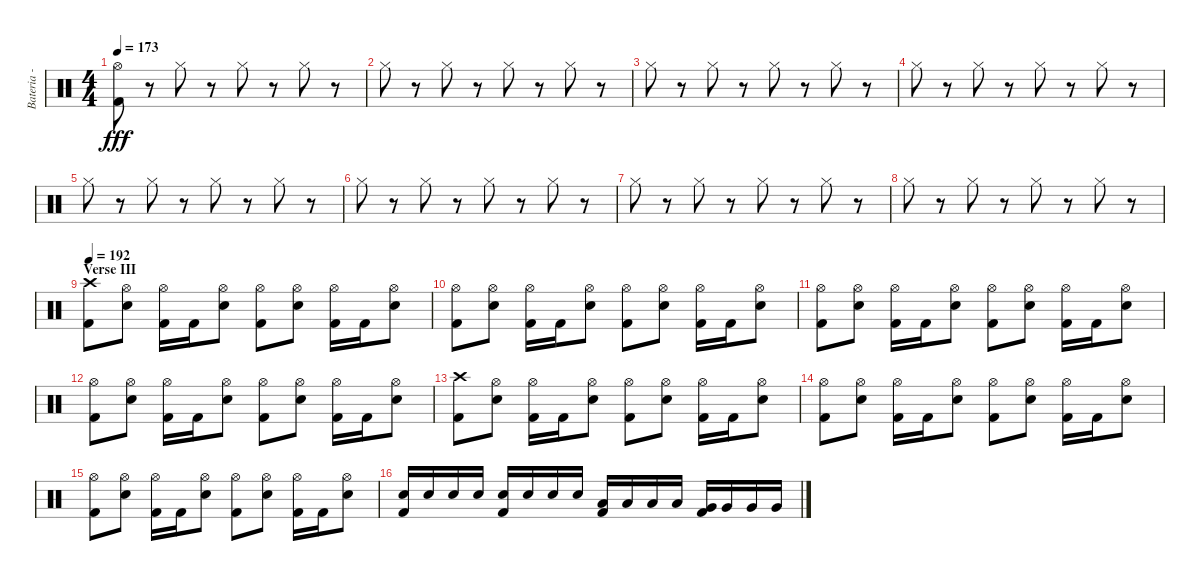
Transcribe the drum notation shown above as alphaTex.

\track ("Bateria - Larzon" "Bateria - ") {instrument percussion}
\staff {score}
\articulation defaults
\ts (4 4)
\tempo 173
\clef neutral
\ks c
("Kick (hit) 2" "Hi-Hat (open)").8{dy fff} r.8 "Hi-Hat (closed)".8 r.8 "Hi-Hat (closed)".8 r.8 "Hi-Hat (closed)".8 r.8 |
"Hi-Hat (closed)".8 r.8 "Hi-Hat (closed)".8 r.8 "Hi-Hat (closed)".8 r.8 "Hi-Hat (closed)".8 r.8 |
"Hi-Hat (closed)".8 r.8 "Hi-Hat (closed)".8 r.8 "Hi-Hat (closed)".8 r.8 "Hi-Hat (closed)".8 r.8 |
"Hi-Hat (closed)".8 r.8 "Hi-Hat (closed)".8 r.8 "Hi-Hat (closed)".8 r.8 "Hi-Hat (closed)".8 r.8 |
"Hi-Hat (closed)".8 r.8 "Hi-Hat (closed)".8 r.8 "Hi-Hat (closed)".8 r.8 "Hi-Hat (closed)".8 r.8 |
"Hi-Hat (closed)".8 r.8 "Hi-Hat (closed)".8 r.8 "Hi-Hat (closed)".8 r.8 "Hi-Hat (closed)".8 r.8 |
"Hi-Hat (closed)".8 r.8 "Hi-Hat (closed)".8 r.8 "Hi-Hat (closed)".8 r.8 "Hi-Hat (closed)".8 r.8 |
"Hi-Hat (closed)".8 r.8 "Hi-Hat (closed)".8 r.8 "Hi-Hat (closed)".8 r.8 "Hi-Hat (closed)".8 r.8 |
\section ("" "Verse III")
\tempo 192
("Kick (hit) 2" "Crash high (hit)").8 ("Electric Snare (hit)" "Hi-Hat (open)").8 ("Kick (hit) 2" "Hi-Hat (open)").16 "Kick (hit) 2".16 ("Electric Snare (hit)" "Hi-Hat (open)").8 ("Kick (hit) 2" "Hi-Hat (open)").8 ("Electric Snare (hit)" "Hi-Hat (open)").8 ("Kick (hit) 2" "Hi-Hat (open)").16 "Kick (hit) 2".16 ("Electric Snare (hit)" "Hi-Hat (open)").8 |
("Kick (hit) 2" "Hi-Hat (open)").8 ("Electric Snare (hit)" "Hi-Hat (open)").8 ("Kick (hit) 2" "Hi-Hat (open)").16 "Kick (hit) 2".16 ("Electric Snare (hit)" "Hi-Hat (open)").8 ("Kick (hit) 2" "Hi-Hat (open)").8 ("Electric Snare (hit)" "Hi-Hat (open)").8 ("Kick (hit) 2" "Hi-Hat (open)").16 "Kick (hit) 2".16 ("Electric Snare (hit)" "Hi-Hat (open)").8 |
("Kick (hit) 2" "Hi-Hat (open)").8 ("Electric Snare (hit)" "Hi-Hat (open)").8 ("Kick (hit) 2" "Hi-Hat (open)").16 "Kick (hit) 2".16 ("Electric Snare (hit)" "Hi-Hat (open)").8 ("Kick (hit) 2" "Hi-Hat (open)").8 ("Electric Snare (hit)" "Hi-Hat (open)").8 ("Kick (hit) 2" "Hi-Hat (open)").16 "Kick (hit) 2".16 ("Electric Snare (hit)" "Hi-Hat (open)").8 |
("Kick (hit) 2" "Hi-Hat (open)").8 ("Electric Snare (hit)" "Hi-Hat (open)").8 ("Kick (hit) 2" "Hi-Hat (open)").16 "Kick (hit) 2".16 ("Electric Snare (hit)" "Hi-Hat (open)").8 ("Kick (hit) 2" "Hi-Hat (open)").8 ("Electric Snare (hit)" "Hi-Hat (open)").8 ("Kick (hit) 2" "Hi-Hat (open)").16 "Kick (hit) 2".16 ("Electric Snare (hit)" "Hi-Hat (open)").8 |
("Kick (hit) 2" "Crash high (hit)").8 ("Electric Snare (hit)" "Hi-Hat (open)").8 ("Kick (hit) 2" "Hi-Hat (open)").16 "Kick (hit) 2".16 ("Electric Snare (hit)" "Hi-Hat (open)").8 ("Kick (hit) 2" "Hi-Hat (open)").8 ("Electric Snare (hit)" "Hi-Hat (open)").8 ("Kick (hit) 2" "Hi-Hat (open)").16 "Kick (hit) 2".16 ("Electric Snare (hit)" "Hi-Hat (open)").8 |
("Kick (hit) 2" "Hi-Hat (open)").8 ("Electric Snare (hit)" "Hi-Hat (open)").8 ("Kick (hit) 2" "Hi-Hat (open)").16 "Kick (hit) 2".16 ("Electric Snare (hit)" "Hi-Hat (open)").8 ("Kick (hit) 2" "Hi-Hat (open)").8 ("Electric Snare (hit)" "Hi-Hat (open)").8 ("Kick (hit) 2" "Hi-Hat (open)").16 "Kick (hit) 2".16 ("Electric Snare (hit)" "Hi-Hat (open)").8 |
("Kick (hit) 2" "Hi-Hat (open)").8 ("Electric Snare (hit)" "Hi-Hat (open)").8 ("Kick (hit) 2" "Hi-Hat (open)").16 "Kick (hit) 2".16 ("Electric Snare (hit)" "Hi-Hat (open)").8 ("Kick (hit) 2" "Hi-Hat (open)").8 ("Electric Snare (hit)" "Hi-Hat (open)").8 ("Kick (hit) 2" "Hi-Hat (open)").16 "Kick (hit) 2".16 ("Electric Snare (hit)" "Hi-Hat (open)").8 |
("Kick (hit) 2" "Electric Snare (hit)").16 "Electric Snare (hit)".16 "Electric Snare (hit)".16 "Electric Snare (hit)".16 ("Kick (hit) 2" "Electric Snare (hit)").16 "Electric Snare (hit)".16 "Electric Snare (hit)".16 "Electric Snare (hit)".16 ("Kick (hit) 2" "Low Tom (hit)").16 "Low Tom (hit)".16 "Low Tom (hit)".16 "Low Tom (hit)".16 ("Kick (hit) 2" "Very Low Tom (hit)").16 "Very Low Tom (hit)".16 "Very Low Tom (hit)".16 "Very Low Tom (hit)".16
